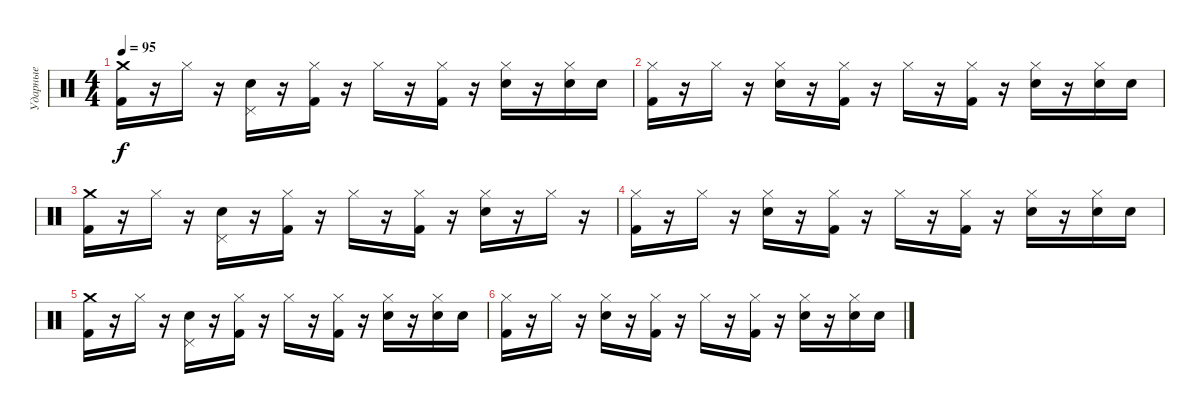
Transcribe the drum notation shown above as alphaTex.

\track ("Ударные" "Ударные") {instrument percussion}
\staff {score}
\articulation defaults
\ts (4 4)
\tempo 95
\clef neutral
\ks c
("Crash medium (hit)" "Kick (hit) 2").16{dy f} r.16 "Hi-Hat (closed)".16 r.16 ("Pedal Hi-Hat (hit)" "Electric Snare (hit)").16 r.16 ("Hi-Hat (closed)" "Kick (hit) 2").16 r.16 "Hi-Hat (closed)".16 r.16 ("Hi-Hat (closed)" "Kick (hit) 2").16 r.16 ("Hi-Hat (closed)" "Electric Snare (hit)").16 r.16 ("Hi-Hat (closed)" "Electric Snare (hit)").16 "Electric Snare (hit)".16 |
("Hi-Hat (closed)" "Kick (hit) 2").16 r.16 "Hi-Hat (closed)".16 r.16 ("Hi-Hat (closed)" "Electric Snare (hit)").16 r.16 ("Hi-Hat (closed)" "Kick (hit) 2").16 r.16 "Hi-Hat (closed)".16 r.16 ("Hi-Hat (closed)" "Kick (hit) 2").16 r.16 ("Hi-Hat (closed)" "Electric Snare (hit)").16 r.16 ("Hi-Hat (closed)" "Electric Snare (hit)").16 "Electric Snare (hit)".16 |
("Crash medium (hit)" "Kick (hit) 2").16 r.16 "Hi-Hat (closed)".16 r.16 ("Pedal Hi-Hat (hit)" "Electric Snare (hit)").16 r.16 ("Hi-Hat (closed)" "Kick (hit) 2").16 r.16 "Hi-Hat (closed)".16 r.16 ("Hi-Hat (closed)" "Kick (hit) 2").16 r.16 ("Hi-Hat (closed)" "Electric Snare (hit)").16 r.16 "Hi-Hat (closed)".16 r.16 |
("Hi-Hat (closed)" "Kick (hit) 2").16 r.16 "Hi-Hat (closed)".16 r.16 ("Hi-Hat (closed)" "Electric Snare (hit)").16 r.16 ("Hi-Hat (closed)" "Kick (hit) 2").16 r.16 "Hi-Hat (closed)".16 r.16 ("Hi-Hat (closed)" "Kick (hit) 2").16 r.16 ("Hi-Hat (closed)" "Electric Snare (hit)").16 r.16 ("Hi-Hat (closed)" "Electric Snare (hit)").16 "Electric Snare (hit)".16 |
("Crash medium (hit)" "Kick (hit) 2").16 r.16 "Hi-Hat (closed)".16 r.16 ("Pedal Hi-Hat (hit)" "Electric Snare (hit)").16 r.16 ("Hi-Hat (closed)" "Kick (hit) 2").16 r.16 "Hi-Hat (closed)".16 r.16 ("Hi-Hat (closed)" "Kick (hit) 2").16 r.16 ("Hi-Hat (closed)" "Electric Snare (hit)").16 r.16 ("Hi-Hat (closed)" "Electric Snare (hit)").16 "Electric Snare (hit)".16 |
("Hi-Hat (closed)" "Kick (hit) 2").16 r.16 "Hi-Hat (closed)".16 r.16 ("Hi-Hat (closed)" "Electric Snare (hit)").16 r.16 ("Hi-Hat (closed)" "Kick (hit) 2").16 r.16 "Hi-Hat (closed)".16 r.16 ("Hi-Hat (closed)" "Kick (hit) 2").16 r.16 ("Hi-Hat (closed)" "Electric Snare (hit)").16 r.16 ("Hi-Hat (closed)" "Electric Snare (hit)").16 "Electric Snare (hit)".16
